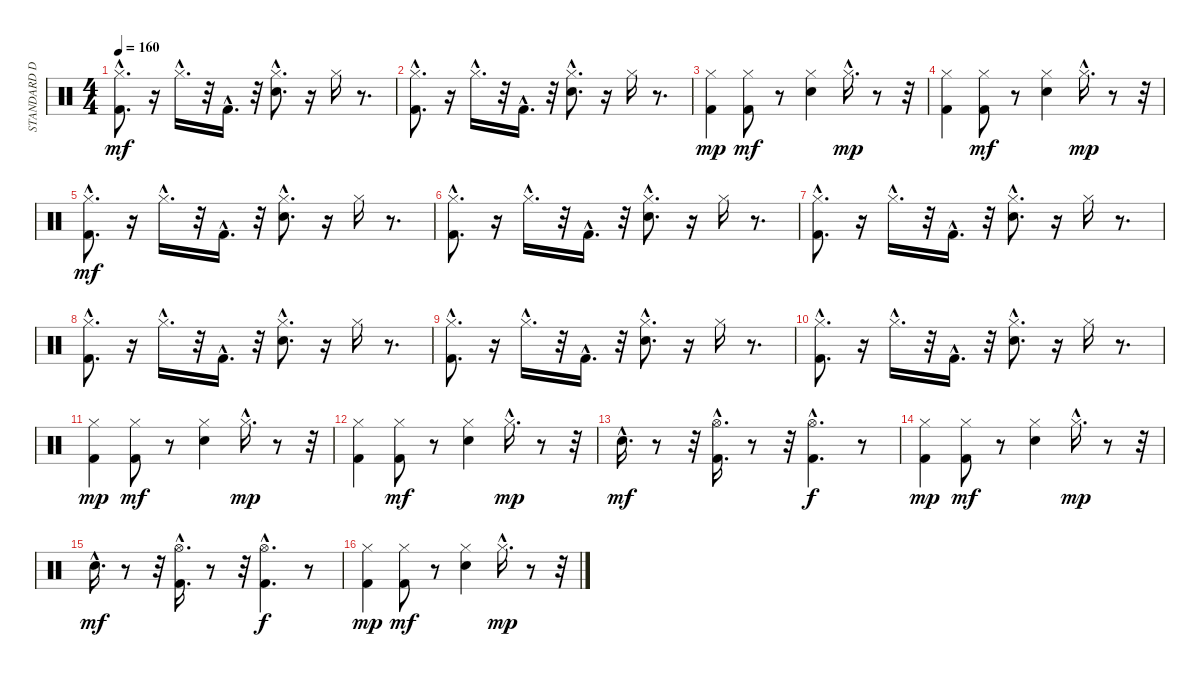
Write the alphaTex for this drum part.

\track ("STANDARD DRUMS" "STANDARD D") {instrument percussion}
\staff {score}
\articulation defaults
\ts (4 4)
\tempo 160
\clef neutral
\ks c
("Hi-Hat (closed)"{hac} "Kick (hit) 2"{hac}).8{d dy mf} r.16 "Hi-Hat (closed)"{hac}.16{d} r.32 "Kick (hit) 2"{hac}.16{d} r.32 ("Hi-Hat (closed)"{hac} "Electric Snare (hit)"{hac}).8{d} r.16 "Hi-Hat (closed)".16 r.8{d} |
("Hi-Hat (closed)"{hac} "Kick (hit) 2"{hac}).8{d} r.16 "Hi-Hat (closed)"{hac}.16{d} r.32 "Kick (hit) 2"{hac}.16{d} r.32 ("Hi-Hat (closed)"{hac} "Electric Snare (hit)"{hac}).8{d} r.16 "Hi-Hat (closed)".16 r.8{d} |
("Hi-Hat (closed)" "Kick (hit) 2").4{dy mp} ("Hi-Hat (closed)" "Kick (hit) 2").8{dy mf} r.8 ("Hi-Hat (closed)" "Electric Snare (hit)").4 "Hi-Hat (closed)"{hac}.16{d dy mp} r.8 r.32 |
("Hi-Hat (closed)" "Kick (hit) 2").4 ("Hi-Hat (closed)" "Kick (hit) 2").8{dy mf} r.8 ("Hi-Hat (closed)" "Electric Snare (hit)").4 "Hi-Hat (closed)"{hac}.16{d dy mp} r.8 r.32 |
("Hi-Hat (closed)"{hac} "Kick (hit) 2"{hac}).8{d dy mf} r.16 "Hi-Hat (closed)"{hac}.16{d} r.32 "Kick (hit) 2"{hac}.16{d} r.32 ("Hi-Hat (closed)"{hac} "Electric Snare (hit)"{hac}).8{d} r.16 "Hi-Hat (closed)".16 r.8{d} |
("Hi-Hat (closed)"{hac} "Kick (hit) 2"{hac}).8{d} r.16 "Hi-Hat (closed)"{hac}.16{d} r.32 "Kick (hit) 2"{hac}.16{d} r.32 ("Hi-Hat (closed)"{hac} "Electric Snare (hit)"{hac}).8{d} r.16 "Hi-Hat (closed)".16 r.8{d} |
("Hi-Hat (closed)"{hac} "Kick (hit) 2"{hac}).8{d} r.16 "Hi-Hat (closed)"{hac}.16{d} r.32 "Kick (hit) 2"{hac}.16{d} r.32 ("Hi-Hat (closed)"{hac} "Electric Snare (hit)"{hac}).8{d} r.16 "Hi-Hat (closed)".16 r.8{d} |
("Hi-Hat (closed)"{hac} "Kick (hit) 2"{hac}).8{d} r.16 "Hi-Hat (closed)"{hac}.16{d} r.32 "Kick (hit) 2"{hac}.16{d} r.32 ("Hi-Hat (closed)"{hac} "Electric Snare (hit)"{hac}).8{d} r.16 "Hi-Hat (closed)".16 r.8{d} |
("Hi-Hat (closed)"{hac} "Kick (hit) 2"{hac}).8{d} r.16 "Hi-Hat (closed)"{hac}.16{d} r.32 "Kick (hit) 2"{hac}.16{d} r.32 ("Hi-Hat (closed)"{hac} "Electric Snare (hit)"{hac}).8{d} r.16 "Hi-Hat (closed)".16 r.8{d} |
("Hi-Hat (closed)"{hac} "Kick (hit) 2"{hac}).8{d} r.16 "Hi-Hat (closed)"{hac}.16{d} r.32 "Kick (hit) 2"{hac}.16{d} r.32 ("Hi-Hat (closed)"{hac} "Electric Snare (hit)"{hac}).8{d} r.16 "Hi-Hat (closed)".16 r.8{d} |
("Hi-Hat (closed)" "Kick (hit) 2").4{dy mp} ("Hi-Hat (closed)" "Kick (hit) 2").8{dy mf} r.8 ("Hi-Hat (closed)" "Electric Snare (hit)").4 "Hi-Hat (closed)"{hac}.16{d dy mp} r.8 r.32 |
("Hi-Hat (closed)" "Kick (hit) 2").4 ("Hi-Hat (closed)" "Kick (hit) 2").8{dy mf} r.8 ("Hi-Hat (closed)" "Electric Snare (hit)").4 "Hi-Hat (closed)"{hac}.16{d dy mp} r.8 r.32 |
"Electric Snare (hit)"{hac}.16{d dy mf} r.8 r.32 ("Kick (hit) 2"{hac} "Hi-Hat (open)").16{d} r.8 r.32 ("Kick (hit) 2"{hac} "Hi-Hat (open)"{hac}).4{d dy f} r.8 |
("Hi-Hat (closed)" "Kick (hit) 2").4{dy mp} ("Hi-Hat (closed)" "Kick (hit) 2").8{dy mf} r.8 ("Hi-Hat (closed)" "Electric Snare (hit)").4 "Hi-Hat (closed)"{hac}.16{d dy mp} r.8 r.32 |
"Electric Snare (hit)"{hac}.16{d dy mf} r.8 r.32 ("Kick (hit) 2"{hac} "Hi-Hat (open)").16{d} r.8 r.32 ("Kick (hit) 2"{hac} "Hi-Hat (open)"{hac}).4{d dy f} r.8 |
("Hi-Hat (closed)" "Kick (hit) 2").4{dy mp} ("Hi-Hat (closed)" "Kick (hit) 2").8{dy mf} r.8 ("Hi-Hat (closed)" "Electric Snare (hit)").4 "Hi-Hat (closed)"{hac}.16{d dy mp} r.8 r.32
